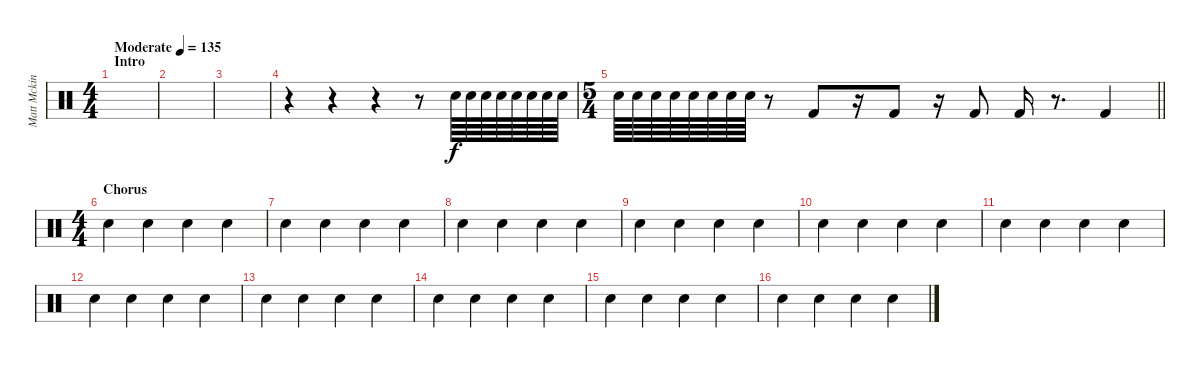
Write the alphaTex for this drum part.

\track ("Matt Mckinley (Drums)" "Matt Mckin") {instrument percussion}
\staff {score}
\articulation defaults
\ts (4 4)
\section ("" "Intro")
\tempo (135 "Moderate")
\clef neutral
\ks c
|
|
|
r.4{volume 0} r.4 r.4 r.8 "Electric Snare (hit)".64 "Electric Snare (hit)".64 "Electric Snare (hit)".64 "Electric Snare (hit)".64 "Electric Snare (hit)".64 "Electric Snare (hit)".64 "Electric Snare (hit)".64{volume 12} "Electric Snare (hit)".64 |
\ts (5 4)
\barLineRight lightlight "Electric Snare (hit)".64 "Electric Snare (hit)".64 "Electric Snare (hit)".64 "Electric Snare (hit)".64 "Electric Snare (hit)".64 "Electric Snare (hit)".64 "Electric Snare (hit)".64 "Electric Snare (hit)".64
r.8 "Kick (hit) 2".8 r.16 "Kick (hit) 2".8 r.16 "Kick (hit) 2".8 "Kick (hit) 2".16 r.8{d} "Kick (hit) 2".4 |
\ts (4 4)
\section ("" "Chorus")
"Electric Snare (hit)".4 "Electric Snare (hit)".4 "Electric Snare (hit)".4 "Electric Snare (hit)".4 |
"Electric Snare (hit)".4 "Electric Snare (hit)".4 "Electric Snare (hit)".4 "Electric Snare (hit)".4 |
"Electric Snare (hit)".4 "Electric Snare (hit)".4 "Electric Snare (hit)".4 "Electric Snare (hit)".4 |
"Electric Snare (hit)".4 "Electric Snare (hit)".4 "Electric Snare (hit)".4 "Electric Snare (hit)".4 |
"Electric Snare (hit)".4 "Electric Snare (hit)".4 "Electric Snare (hit)".4 "Electric Snare (hit)".4 |
"Electric Snare (hit)".4 "Electric Snare (hit)".4 "Electric Snare (hit)".4 "Electric Snare (hit)".4 |
"Electric Snare (hit)".4 "Electric Snare (hit)".4 "Electric Snare (hit)".4 "Electric Snare (hit)".4 |
"Electric Snare (hit)".4 "Electric Snare (hit)".4 "Electric Snare (hit)".4 "Electric Snare (hit)".4 |
"Electric Snare (hit)".4 "Electric Snare (hit)".4 "Electric Snare (hit)".4 "Electric Snare (hit)".4 |
"Electric Snare (hit)".4 "Electric Snare (hit)".4 "Electric Snare (hit)".4 "Electric Snare (hit)".4 |
"Electric Snare (hit)".4 "Electric Snare (hit)".4 "Electric Snare (hit)".4 "Electric Snare (hit)".4
